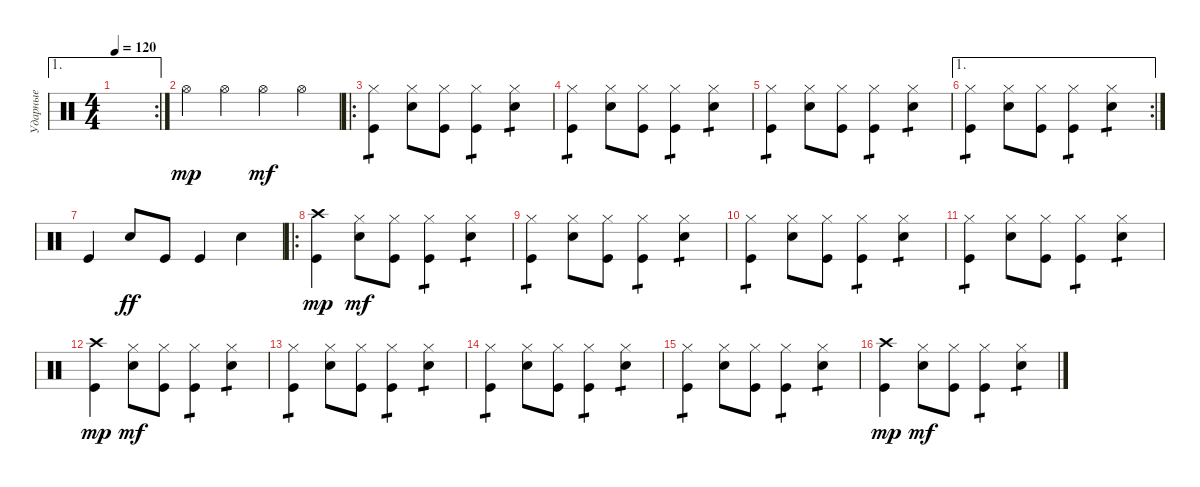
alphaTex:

\track ("Ударные" "Ударные") {instrument percussion}
\staff {score}
\articulation defaults
\ae 1
\rc 2
\ts (4 4)
\tempo 120
\clef neutral
\ks c
|
"Hi-Hat (open)".4{dy mp} "Hi-Hat (open)".4 "Hi-Hat (open)".4{dy mf} "Hi-Hat (open)".4 |
\ro
("Kick (hit)" "Hi-Hat (closed)").4{tp 1} ("Snare (hit) 2" "Hi-Hat (closed)").8 ("Kick (hit)" "Hi-Hat (closed)").8 ("Kick (hit)" "Hi-Hat (closed)").4{tp 1} ("Snare (hit) 2" "Hi-Hat (closed)").4{tp 1} |
("Kick (hit)" "Hi-Hat (closed)").4{tp 1} ("Snare (hit) 2" "Hi-Hat (closed)").8 ("Kick (hit)" "Hi-Hat (closed)").8 ("Kick (hit)" "Hi-Hat (closed)").4{tp 1} ("Snare (hit) 2" "Hi-Hat (closed)").4{tp 1} |
("Kick (hit)" "Hi-Hat (closed)").4{tp 1} ("Snare (hit) 2" "Hi-Hat (closed)").8 ("Kick (hit)" "Hi-Hat (closed)").8 ("Kick (hit)" "Hi-Hat (closed)").4{tp 1} ("Snare (hit) 2" "Hi-Hat (closed)").4{tp 1} |
\ae 1
\rc 2
("Kick (hit)" "Hi-Hat (closed)").4{tp 1} ("Snare (hit) 2" "Hi-Hat (closed)").8 ("Kick (hit)" "Hi-Hat (closed)").8 ("Kick (hit)" "Hi-Hat (closed)").4{tp 1} ("Snare (hit) 2" "Hi-Hat (closed)").4{tp 1} |
"Kick (hit)".4 "Snare (hit) 2".8{dy ff} "Kick (hit)".8 "Kick (hit)".4 "Snare (hit) 2".4 |
\ro
("Kick (hit)" "Crash high (hit)").4{dy mp} ("Snare (hit) 2" "Hi-Hat (closed)").8{dy mf} ("Kick (hit)" "Hi-Hat (closed)").8 ("Kick (hit)" "Hi-Hat (closed)").4{tp 1} ("Snare (hit) 2" "Hi-Hat (closed)").4{tp 1} |
("Kick (hit)" "Hi-Hat (closed)").4{tp 1} ("Snare (hit) 2" "Hi-Hat (closed)").8 ("Kick (hit)" "Hi-Hat (closed)").8 ("Kick (hit)" "Hi-Hat (closed)").4{tp 1} ("Snare (hit) 2" "Hi-Hat (closed)").4{tp 1} |
("Kick (hit)" "Hi-Hat (closed)").4{tp 1} ("Snare (hit) 2" "Hi-Hat (closed)").8 ("Kick (hit)" "Hi-Hat (closed)").8 ("Kick (hit)" "Hi-Hat (closed)").4{tp 1} ("Snare (hit) 2" "Hi-Hat (closed)").4{tp 1} |
("Kick (hit)" "Hi-Hat (closed)").4{tp 1} ("Snare (hit) 2" "Hi-Hat (closed)").8 ("Kick (hit)" "Hi-Hat (closed)").8 ("Kick (hit)" "Hi-Hat (closed)").4{tp 1} ("Snare (hit) 2" "Hi-Hat (closed)").4{tp 1} |
("Kick (hit)" "Crash high (hit)").4{dy mp} ("Snare (hit) 2" "Hi-Hat (closed)").8{dy mf} ("Kick (hit)" "Hi-Hat (closed)").8 ("Kick (hit)" "Hi-Hat (closed)").4{tp 1} ("Snare (hit) 2" "Hi-Hat (closed)").4{tp 1} |
("Kick (hit)" "Hi-Hat (closed)").4{tp 1} ("Snare (hit) 2" "Hi-Hat (closed)").8 ("Kick (hit)" "Hi-Hat (closed)").8 ("Kick (hit)" "Hi-Hat (closed)").4{tp 1} ("Snare (hit) 2" "Hi-Hat (closed)").4{tp 1} |
("Kick (hit)" "Hi-Hat (closed)").4{tp 1} ("Snare (hit) 2" "Hi-Hat (closed)").8 ("Kick (hit)" "Hi-Hat (closed)").8 ("Kick (hit)" "Hi-Hat (closed)").4{tp 1} ("Snare (hit) 2" "Hi-Hat (closed)").4{tp 1} |
("Kick (hit)" "Hi-Hat (closed)").4{tp 1} ("Snare (hit) 2" "Hi-Hat (closed)").8 ("Kick (hit)" "Hi-Hat (closed)").8 ("Kick (hit)" "Hi-Hat (closed)").4{tp 1} ("Snare (hit) 2" "Hi-Hat (closed)").4{tp 1} |
("Kick (hit)" "Crash high (hit)").4{dy mp} ("Snare (hit) 2" "Hi-Hat (closed)").8{dy mf} ("Kick (hit)" "Hi-Hat (closed)").8 ("Kick (hit)" "Hi-Hat (closed)").4{tp 1} ("Snare (hit) 2" "Hi-Hat (closed)").4{tp 1}
